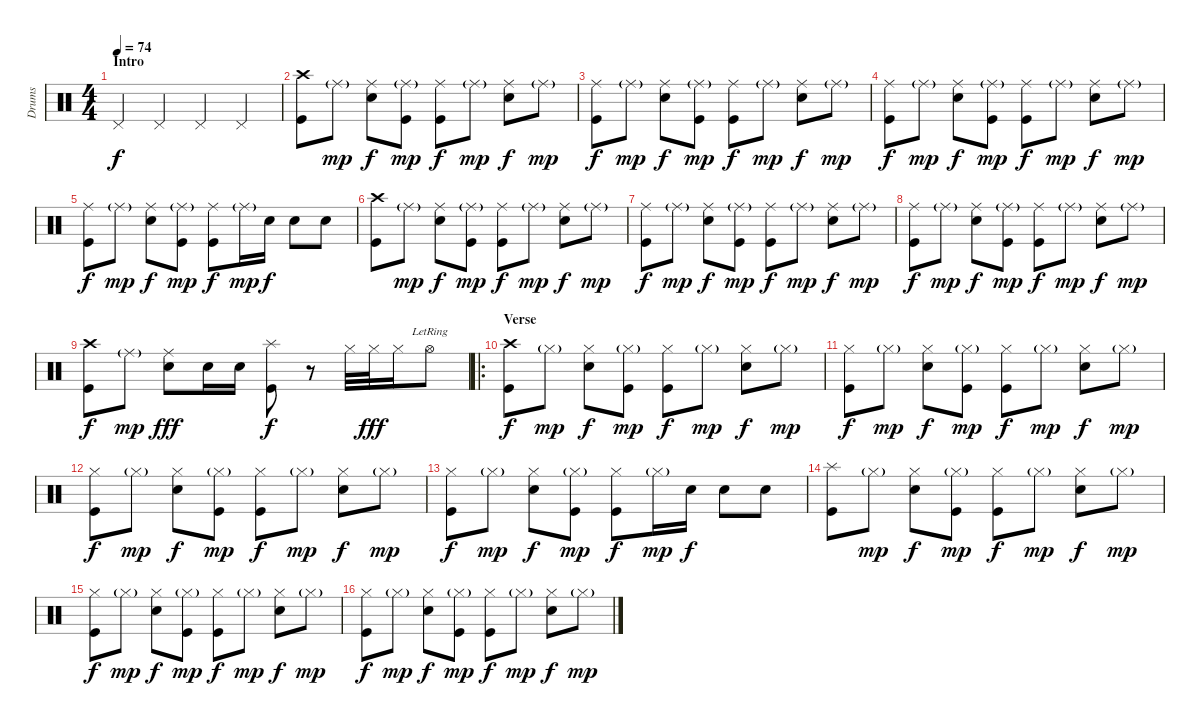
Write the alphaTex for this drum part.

\track ("Drums" "Drums") {instrument percussion}
\staff {score}
\articulation defaults
\ts (4 4)
\section ("" "Intro")
\tempo 74
\clef neutral
\ks c "Pedal Hi-Hat (hit)".4{dy f} "Pedal Hi-Hat (hit)".4 "Pedal Hi-Hat (hit)".4 "Pedal Hi-Hat (hit)".4
|
("Crash high (hit)" "Kick (hit)").8 "Ride (middle)"{g}.8{dy mp} ("Ride (middle)" "Snare (hit) 2").8{dy f} ("Ride (middle)"{g} "Kick (hit)").8{dy mp} ("Ride (middle)" "Kick (hit)").8{dy f} "Ride (middle)"{g}.8{dy mp} ("Ride (middle)" "Snare (hit) 2").8{dy f} "Ride (middle)"{g}.8{dy mp} |
("Ride (middle)" "Kick (hit)").8{dy f} "Ride (middle)"{g}.8{dy mp} ("Ride (middle)" "Snare (hit) 2").8{dy f} ("Ride (middle)"{g} "Kick (hit)").8{dy mp} ("Ride (middle)" "Kick (hit)").8{dy f} "Ride (middle)"{g}.8{dy mp} ("Ride (middle)" "Snare (hit) 2").8{dy f} "Ride (middle)"{g}.8{dy mp} |
("Ride (middle)" "Kick (hit)").8{dy f} "Ride (middle)"{g}.8{dy mp} ("Ride (middle)" "Snare (hit) 2").8{dy f} ("Ride (middle)"{g} "Kick (hit)").8{dy mp} ("Ride (middle)" "Kick (hit)").8{dy f} "Ride (middle)"{g}.8{dy mp} ("Ride (middle)" "Snare (hit) 2").8{dy f} "Ride (middle)"{g}.8{dy mp} |
("Ride (middle)" "Kick (hit)").8{dy f} "Ride (middle)"{g}.8{dy mp} ("Ride (middle)" "Snare (hit) 2").8{dy f} ("Ride (middle)"{g} "Kick (hit)").8{dy mp} ("Ride (middle)" "Kick (hit)").8{dy f} "Ride (middle)"{g}.16{dy mp} "Snare (hit) 2".16{dy f} "Snare (hit) 2".8 "Snare (hit) 2".8 |
("Crash high (hit)" "Kick (hit)").8 "Ride (middle)"{g}.8{dy mp} ("Ride (middle)" "Snare (hit) 2").8{dy f} ("Ride (middle)"{g} "Kick (hit)").8{dy mp} ("Ride (middle)" "Kick (hit)").8{dy f} "Ride (middle)"{g}.8{dy mp} ("Ride (middle)" "Snare (hit) 2").8{dy f} "Ride (middle)"{g}.8{dy mp} |
("Ride (middle)" "Kick (hit)").8{dy f} "Ride (middle)"{g}.8{dy mp} ("Ride (middle)" "Snare (hit) 2").8{dy f} ("Ride (middle)"{g} "Kick (hit)").8{dy mp} ("Ride (middle)" "Kick (hit)").8{dy f} "Ride (middle)"{g}.8{dy mp} ("Ride (middle)" "Snare (hit) 2").8{dy f} "Ride (middle)"{g}.8{dy mp} |
("Ride (middle)" "Kick (hit)").8{dy f} "Ride (middle)"{g}.8{dy mp} ("Ride (middle)" "Snare (hit) 2").8{dy f} ("Ride (middle)"{g} "Kick (hit)").8{dy mp} ("Ride (middle)" "Kick (hit)").8{dy f} "Ride (middle)"{g}.8{dy mp} ("Ride (middle)" "Snare (hit) 2").8{dy f} "Ride (middle)"{g}.8{dy mp} |
("Crash high (hit)" "Kick (hit)").8{dy f} "Ride (middle)"{g}.8{dy mp} ("Ride (middle)" "Snare (hit) 2").8{dy fff} "Snare (hit) 2".16 "Snare (hit) 2".16 ("Splash (hit)" "Kick (hit)").8{dy f} r.8 "Hi-Hat (closed)".32 "Hi-Hat (closed)".32{dy fff} "Hi-Hat (closed)".16 "Hi-Hat (open)"{lr}.8 |
\ro
\section ("" "Verse")
("Crash high (hit)" "Kick (hit)").8{dy f} "Hi-Hat (closed)"{g}.8{dy mp} ("Hi-Hat (closed)" "Snare (hit) 2").8{dy f} ("Hi-Hat (closed)"{g} "Kick (hit)").8{dy mp} ("Hi-Hat (closed)" "Kick (hit)").8{dy f} "Hi-Hat (closed)"{g}.8{dy mp} ("Hi-Hat (closed)" "Snare (hit) 2").8{dy f} "Hi-Hat (closed)"{g}.8{dy mp} |
("Hi-Hat (closed)" "Kick (hit)").8{dy f} "Hi-Hat (closed)"{g}.8{dy mp} ("Hi-Hat (closed)" "Snare (hit) 2").8{dy f} ("Hi-Hat (closed)"{g} "Kick (hit)").8{dy mp} ("Hi-Hat (closed)" "Kick (hit)").8{dy f} "Hi-Hat (closed)"{g}.8{dy mp} ("Hi-Hat (closed)" "Snare (hit) 2").8{dy f} "Hi-Hat (closed)"{g}.8{dy mp} |
("Hi-Hat (closed)" "Kick (hit)").8{dy f} "Hi-Hat (closed)"{g}.8{dy mp} ("Hi-Hat (closed)" "Snare (hit) 2").8{dy f} ("Hi-Hat (closed)"{g} "Kick (hit)").8{dy mp} ("Hi-Hat (closed)" "Kick (hit)").8{dy f} "Hi-Hat (closed)"{g}.8{dy mp} ("Hi-Hat (closed)" "Snare (hit) 2").8{dy f} "Hi-Hat (closed)"{g}.8{dy mp} |
("Hi-Hat (closed)" "Kick (hit)").8{dy f} "Hi-Hat (closed)"{g}.8{dy mp} ("Hi-Hat (closed)" "Snare (hit) 2").8{dy f} ("Hi-Hat (closed)"{g} "Kick (hit)").8{dy mp} ("Hi-Hat (closed)" "Kick (hit)").8{dy f} "Hi-Hat (closed)"{g}.16{dy mp} "Snare (hit) 2".16{dy f} "Snare (hit) 2".8 "Snare (hit) 2".8 |
("Splash (hit)" "Kick (hit)").8 "Hi-Hat (closed)"{g}.8{dy mp} ("Hi-Hat (closed)" "Snare (hit) 2").8{dy f} ("Hi-Hat (closed)"{g} "Kick (hit)").8{dy mp} ("Hi-Hat (closed)" "Kick (hit)").8{dy f} "Hi-Hat (closed)"{g}.8{dy mp} ("Hi-Hat (closed)" "Snare (hit) 2").8{dy f} "Hi-Hat (closed)"{g}.8{dy mp} |
("Hi-Hat (closed)" "Kick (hit)").8{dy f} "Hi-Hat (closed)"{g}.8{dy mp} ("Hi-Hat (closed)" "Snare (hit) 2").8{dy f} ("Hi-Hat (closed)"{g} "Kick (hit)").8{dy mp} ("Hi-Hat (closed)" "Kick (hit)").8{dy f} "Hi-Hat (closed)"{g}.8{dy mp} ("Hi-Hat (closed)" "Snare (hit) 2").8{dy f} "Hi-Hat (closed)"{g}.8{dy mp} |
("Hi-Hat (closed)" "Kick (hit)").8{dy f} "Hi-Hat (closed)"{g}.8{dy mp} ("Hi-Hat (closed)" "Snare (hit) 2").8{dy f} ("Hi-Hat (closed)"{g} "Kick (hit)").8{dy mp} ("Hi-Hat (closed)" "Kick (hit)").8{dy f} "Hi-Hat (closed)"{g}.8{dy mp} ("Hi-Hat (closed)" "Snare (hit) 2").8{dy f} "Hi-Hat (closed)"{g}.8{dy mp}
